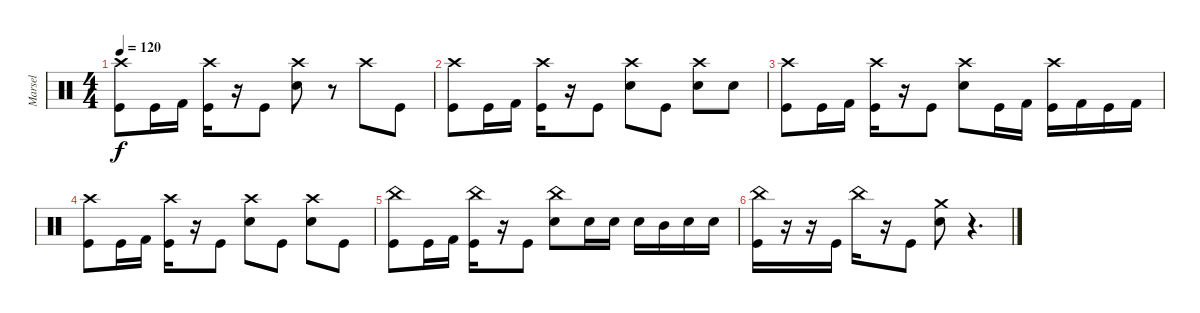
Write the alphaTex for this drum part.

\track ("Marsel" "Marsel") {instrument percussion}
\staff {score}
\articulation defaults
\ts (4 4)
\tempo 120
\clef neutral
\ks c
("Crash high (hit)" "Kick (hit)").8{dy f} "Kick (hit)".16 "Kick (hit) 2".16 ("Crash high (hit)" "Kick (hit)").16 r.16 "Kick (hit)".8 ("Crash high (hit)" "Snare (hit) 2").8 r.8 "Crash high (hit)".8 "Kick (hit)".8 |
("Crash high (hit)" "Kick (hit)").8 "Kick (hit)".16 "Kick (hit) 2".16 ("Crash high (hit)" "Kick (hit)").16 r.16 "Kick (hit)".8 ("Crash high (hit)" "Snare (hit) 2").8 "Kick (hit)".8 ("Crash high (hit)" "Snare (hit) 2").8 "Snare (hit) 2".8 |
("Crash high (hit)" "Kick (hit)").8 "Kick (hit)".16 "Kick (hit) 2".16 ("Crash high (hit)" "Kick (hit)").16 r.16 "Kick (hit)".8 ("Crash high (hit)" "Snare (hit) 2").8 "Kick (hit)".16 "Kick (hit) 2".16 ("Crash high (hit)" "Kick (hit)").16 "Kick (hit) 2".16 "Kick (hit)".16 "Kick (hit) 2".16 |
("Crash high (hit)" "Kick (hit)").8 "Kick (hit)".16 "Kick (hit) 2".16 ("Crash high (hit)" "Kick (hit)").16 r.16 "Kick (hit)".8 ("Crash high (hit)" "Snare (hit) 2").8 "Kick (hit)".8 ("Crash high (hit)" "Snare (hit) 2").8 "Kick (hit)".8 |
("China (hit)" "Kick (hit)").8 "Kick (hit)".16 "Kick (hit) 2".16 ("China (hit)" "Kick (hit)").16 r.16 "Kick (hit)".8 ("China (hit)" "Snare (hit) 2").8 "Snare (hit) 2".16 "Snare (hit) 2".16 "Snare (hit) 2".16 "Mid Tom (hit)".16 "Snare (hit) 2".16 "Snare (hit) 2".16 |
("China (hit)" "Kick (hit)").16 r.16 r.16 "Kick (hit)".16 "China (hit)".16 r.16 "Kick (hit)".8 ("Crash medium (hit)" "Snare (hit) 2").8 r.4{d}
